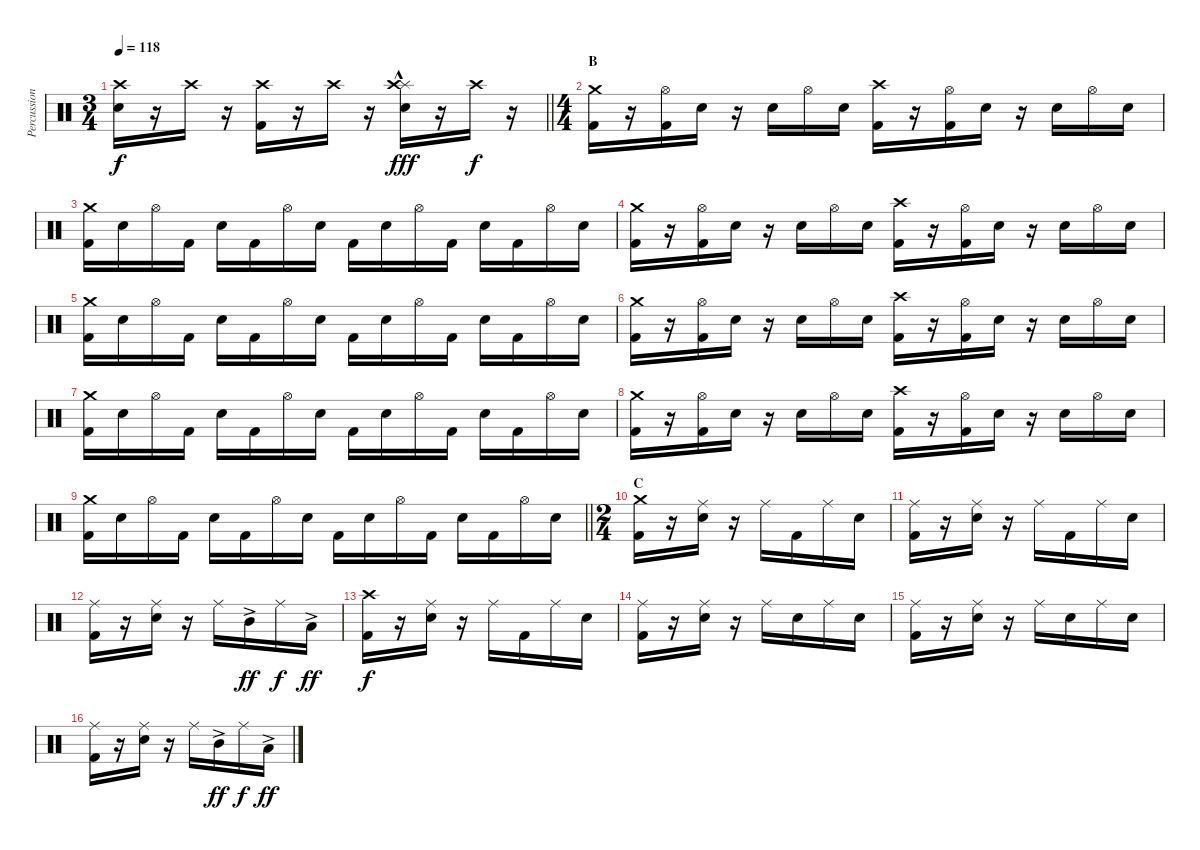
\track ("Percussion" "Percussion") {instrument percussion}
\staff {score}
\articulation defaults
\ts (3 4)
\tempo 118
\clef neutral
\barLineRight lightlight
\ks c
("Crash high (hit)" "Electric Snare (hit)").16{dy f} r.16 "Crash high (hit)".16 r.16 ("Crash high (hit)" "Kick (hit) 2").16 r.16 "Crash high (hit)".16 r.16 ("Splash (hit)"{hac} "Crash high (hit)" "Electric Snare (hit)").16{dy fff} r.16 "Crash high (hit)".16{dy f} r.16 |
\ts (4 4)
\section ("" "B")
("Crash medium (hit)" "Kick (hit) 2").16 r.16 ("Hi-Hat (open)" "Kick (hit) 2").16 "Electric Snare (hit)".16 r.16 "Electric Snare (hit)".16 "Hi-Hat (open)".16 "Electric Snare (hit)".16 ("Crash high (hit)" "Kick (hit) 2").16 r.16 ("Hi-Hat (open)" "Kick (hit) 2").16 "Electric Snare (hit)".16 r.16 "Electric Snare (hit)".16 "Hi-Hat (open)".16 "Electric Snare (hit)".16 |
("Crash medium (hit)" "Kick (hit) 2").16 "Electric Snare (hit)".16 "Hi-Hat (open)".16 "Kick (hit) 2".16 "Electric Snare (hit)".16 "Kick (hit) 2".16 "Hi-Hat (open)".16 "Electric Snare (hit)".16 "Kick (hit) 2".16 "Electric Snare (hit)".16 "Hi-Hat (open)".16 "Kick (hit) 2".16 "Electric Snare (hit)".16 "Kick (hit) 2".16 "Hi-Hat (open)".16 "Electric Snare (hit)".16 |
("Crash medium (hit)" "Kick (hit) 2").16 r.16 ("Hi-Hat (open)" "Kick (hit) 2").16 "Electric Snare (hit)".16 r.16 "Electric Snare (hit)".16 "Hi-Hat (open)".16 "Electric Snare (hit)".16 ("Crash high (hit)" "Kick (hit) 2").16 r.16 ("Hi-Hat (open)" "Kick (hit) 2").16 "Electric Snare (hit)".16 r.16 "Electric Snare (hit)".16 "Hi-Hat (open)".16 "Electric Snare (hit)".16 |
("Crash medium (hit)" "Kick (hit) 2").16 "Electric Snare (hit)".16 "Hi-Hat (open)".16 "Kick (hit) 2".16 "Electric Snare (hit)".16 "Kick (hit) 2".16 "Hi-Hat (open)".16 "Electric Snare (hit)".16 "Kick (hit) 2".16 "Electric Snare (hit)".16 "Hi-Hat (open)".16 "Kick (hit) 2".16 "Electric Snare (hit)".16 "Kick (hit) 2".16 "Hi-Hat (open)".16 "Electric Snare (hit)".16 |
("Crash medium (hit)" "Kick (hit) 2").16 r.16 ("Hi-Hat (open)" "Kick (hit) 2").16 "Electric Snare (hit)".16 r.16 "Electric Snare (hit)".16 "Hi-Hat (open)".16 "Electric Snare (hit)".16 ("Crash high (hit)" "Kick (hit) 2").16 r.16 ("Hi-Hat (open)" "Kick (hit) 2").16 "Electric Snare (hit)".16 r.16 "Electric Snare (hit)".16 "Hi-Hat (open)".16 "Electric Snare (hit)".16 |
("Crash medium (hit)" "Kick (hit) 2").16 "Electric Snare (hit)".16 "Hi-Hat (open)".16 "Kick (hit) 2".16 "Electric Snare (hit)".16 "Kick (hit) 2".16 "Hi-Hat (open)".16 "Electric Snare (hit)".16 "Kick (hit) 2".16 "Electric Snare (hit)".16 "Hi-Hat (open)".16 "Kick (hit) 2".16 "Electric Snare (hit)".16 "Kick (hit) 2".16 "Hi-Hat (open)".16 "Electric Snare (hit)".16 |
("Crash medium (hit)" "Kick (hit) 2").16 r.16 ("Hi-Hat (open)" "Kick (hit) 2").16 "Electric Snare (hit)".16 r.16 "Electric Snare (hit)".16 "Hi-Hat (open)".16 "Electric Snare (hit)".16 ("Crash high (hit)" "Kick (hit) 2").16 r.16 ("Hi-Hat (open)" "Kick (hit) 2").16 "Electric Snare (hit)".16 r.16 "Electric Snare (hit)".16 "Hi-Hat (open)".16 "Electric Snare (hit)".16 |
\barLineRight lightlight
("Crash medium (hit)" "Kick (hit) 2").16 "Electric Snare (hit)".16 "Hi-Hat (open)".16 "Kick (hit) 2".16 "Electric Snare (hit)".16 "Kick (hit) 2".16 "Hi-Hat (open)".16 "Electric Snare (hit)".16 "Kick (hit) 2".16 "Electric Snare (hit)".16 "Hi-Hat (open)".16 "Kick (hit) 2".16 "Electric Snare (hit)".16 "Kick (hit) 2".16 "Hi-Hat (open)".16 "Electric Snare (hit)".16 |
\ts (2 4)
\section ("" "C")
("Crash medium (hit)" "Kick (hit) 2").16 r.16 ("Ride (middle)" "Electric Snare (hit)").16 r.16 "Ride (middle)".16 "Kick (hit) 2".16 "Ride (middle)".16 "Electric Snare (hit)".16 |
("Ride (middle)" "Kick (hit) 2").16 r.16 ("Ride (middle)" "Electric Snare (hit)").16 r.16 "Ride (middle)".16 "Kick (hit) 2".16 "Ride (middle)".16 "Electric Snare (hit)".16 |
("Ride (middle)" "Kick (hit) 2").16 r.16 ("Ride (middle)" "Electric Snare (hit)").16 r.16 "Ride (middle)".16 "Mid Tom (hit)"{ac}.16{dy ff} "Ride (middle)".16{dy f} "Low Tom (hit)"{ac}.16{dy ff} |
("Crash high (hit)" "Kick (hit) 2").16{dy f} r.16 ("Ride (middle)" "Electric Snare (hit)").16 r.16 "Ride (middle)".16 "Kick (hit) 2".16 "Ride (middle)".16 "Electric Snare (hit)".16 |
("Ride (middle)" "Kick (hit) 2").16 r.16 ("Ride (middle)" "Electric Snare (hit)").16 r.16 "Ride (middle)".16 "Electric Snare (hit)".16 "Ride (middle)".16 "Electric Snare (hit)".16 |
("Ride (middle)" "Kick (hit) 2").16 r.16 ("Ride (middle)" "Electric Snare (hit)").16 r.16 "Ride (middle)".16 "Electric Snare (hit)".16 "Ride (middle)".16 "Electric Snare (hit)".16 |
("Ride (middle)" "Kick (hit) 2").16 r.16 ("Ride (middle)" "Electric Snare (hit)").16 r.16 "Ride (middle)".16 "Mid Tom (hit)"{ac}.16{dy ff} "Ride (middle)".16{dy f} "Low Tom (hit)"{ac}.16{dy ff}
